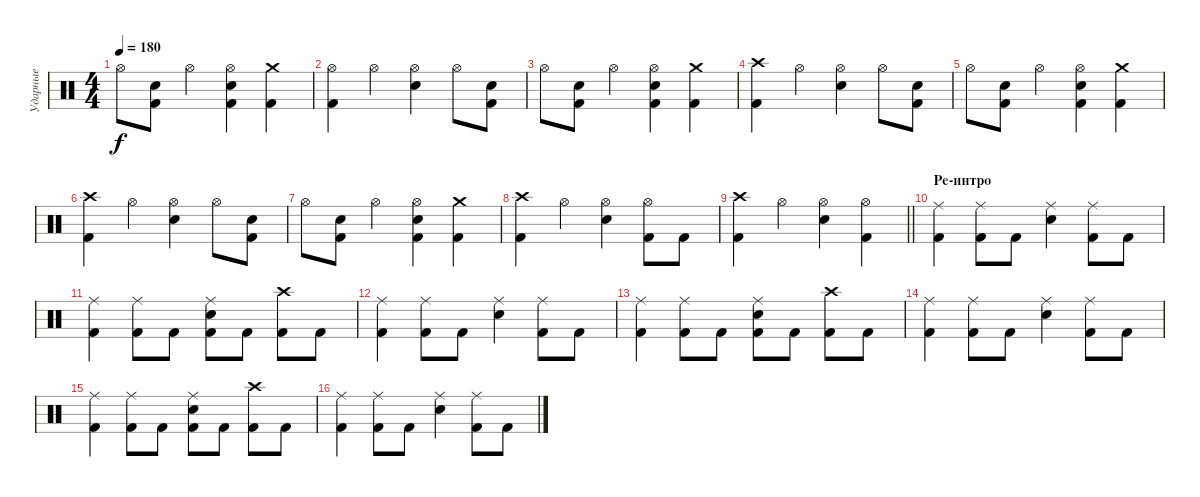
\track ("Ударные" "Ударные") {instrument percussion}
\staff {score}
\articulation defaults
\ts (4 4)
\tempo 180
\clef neutral
\ks c "Hi-Hat (open)".8{dy f}
("Kick (hit) 2" "Snare (hit) 2").8 "Hi-Hat (open)".4 ("Snare (hit) 2" "Kick (hit) 2" "Hi-Hat (open)").4 ("Kick (hit) 2" "Crash medium (hit)").4 |
("Kick (hit) 2" "Hi-Hat (open)").4 "Hi-Hat (open)".4 ("Snare (hit) 2" "Hi-Hat (open)").4 "Hi-Hat (open)".8 ("Kick (hit) 2" "Snare (hit) 2").8 |
"Hi-Hat (open)".8 ("Kick (hit) 2" "Snare (hit) 2").8 "Hi-Hat (open)".4 ("Snare (hit) 2" "Kick (hit) 2" "Hi-Hat (open)").4 ("Kick (hit) 2" "Crash medium (hit)").4 |
("Kick (hit) 2" "Crash high (hit)").4 "Hi-Hat (open)".4 ("Snare (hit) 2" "Hi-Hat (open)").4 "Hi-Hat (open)".8 ("Kick (hit) 2" "Snare (hit) 2").8 |
"Hi-Hat (open)".8 ("Kick (hit) 2" "Snare (hit) 2").8 "Hi-Hat (open)".4 ("Snare (hit) 2" "Kick (hit) 2" "Hi-Hat (open)").4 ("Kick (hit) 2" "Crash medium (hit)").4 |
("Kick (hit) 2" "Crash high (hit)").4 "Hi-Hat (open)".4 ("Snare (hit) 2" "Hi-Hat (open)").4 "Hi-Hat (open)".8 ("Kick (hit) 2" "Snare (hit) 2").8 |
"Hi-Hat (open)".8 ("Kick (hit) 2" "Snare (hit) 2").8 "Hi-Hat (open)".4 ("Snare (hit) 2" "Kick (hit) 2" "Hi-Hat (open)").4 ("Kick (hit) 2" "Crash medium (hit)").4 |
("Kick (hit) 2" "Crash high (hit)").4 "Hi-Hat (open)".4 ("Snare (hit) 2" "Hi-Hat (open)").4 ("Kick (hit) 2" "Hi-Hat (open)").8 "Kick (hit) 2".8 |
\barLineRight lightlight
("Kick (hit) 2" "Crash high (hit)").4 "Hi-Hat (open)".4 ("Snare (hit) 2" "Hi-Hat (open)").4 ("Kick (hit) 2" "Hi-Hat (open)").4 |
\section ("" "Ре-интро")
("Kick (hit) 2" "Ride (middle)").4 ("Kick (hit) 2" "Ride (middle)").8 "Kick (hit) 2".8 ("Snare (hit) 2" "Ride (middle)").4 ("Kick (hit) 2" "Ride (middle)").8 "Kick (hit) 2".8 |
("Kick (hit) 2" "Ride (middle)").4 ("Kick (hit) 2" "Ride (middle)").8 "Kick (hit) 2".8 ("Kick (hit) 2" "Snare (hit) 2" "Ride (middle)").8 "Kick (hit) 2".8 ("Kick (hit) 2" "Crash high (hit)").8 "Kick (hit) 2".8 |
("Kick (hit) 2" "Ride (middle)").4 ("Kick (hit) 2" "Ride (middle)").8 "Kick (hit) 2".8 ("Snare (hit) 2" "Ride (middle)").4 ("Kick (hit) 2" "Ride (middle)").8 "Kick (hit) 2".8 |
("Kick (hit) 2" "Ride (middle)").4 ("Kick (hit) 2" "Ride (middle)").8 "Kick (hit) 2".8 ("Kick (hit) 2" "Snare (hit) 2" "Ride (middle)").8 "Kick (hit) 2".8 ("Kick (hit) 2" "Crash high (hit)").8 "Kick (hit) 2".8 |
("Kick (hit) 2" "Ride (middle)").4 ("Kick (hit) 2" "Ride (middle)").8 "Kick (hit) 2".8 ("Snare (hit) 2" "Ride (middle)").4 ("Kick (hit) 2" "Ride (middle)").8 "Kick (hit) 2".8 |
("Kick (hit) 2" "Ride (middle)").4 ("Kick (hit) 2" "Ride (middle)").8 "Kick (hit) 2".8 ("Kick (hit) 2" "Snare (hit) 2" "Ride (middle)").8 "Kick (hit) 2".8 ("Kick (hit) 2" "Crash high (hit)").8 "Kick (hit) 2".8 |
("Kick (hit) 2" "Ride (middle)").4 ("Kick (hit) 2" "Ride (middle)").8 "Kick (hit) 2".8 ("Snare (hit) 2" "Ride (middle)").4 ("Kick (hit) 2" "Ride (middle)").8 "Kick (hit) 2".8
